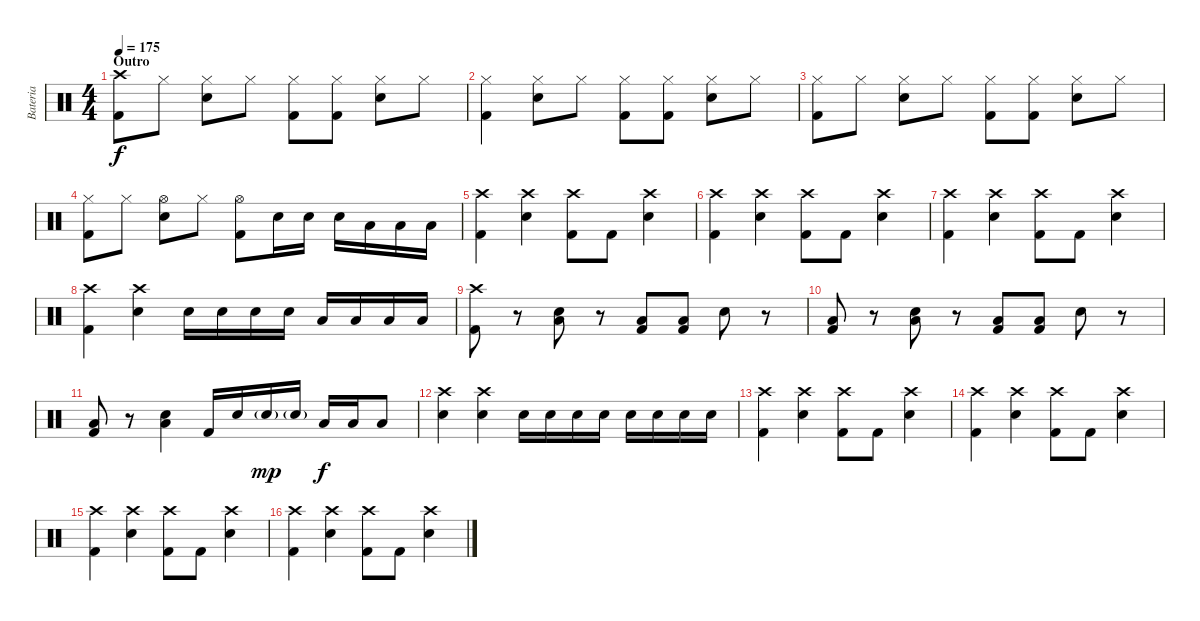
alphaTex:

\track ("Bateria" "Bateria") {instrument percussion}
\staff {score}
\articulation defaults
\ts (4 4)
\section ("" "Outro")
\tempo 175
\clef neutral
\ks c
("Crash high (hit)" "Kick (hit) 2").8{dy f} "Hi-Hat (closed)".8 ("Hi-Hat (closed)" "Electric Snare (hit)").8 "Hi-Hat (closed)".8 ("Hi-Hat (closed)" "Kick (hit) 2").8 ("Hi-Hat (closed)" "Kick (hit) 2").8 ("Hi-Hat (closed)" "Electric Snare (hit)").8 "Hi-Hat (closed)".8 |
("Hi-Hat (closed)" "Kick (hit) 2").4 ("Hi-Hat (closed)" "Electric Snare (hit)").8 "Hi-Hat (closed)".8 ("Hi-Hat (closed)" "Kick (hit) 2").8 ("Hi-Hat (closed)" "Kick (hit) 2").8 ("Hi-Hat (closed)" "Electric Snare (hit)").8 "Hi-Hat (closed)".8 |
("Hi-Hat (closed)" "Kick (hit) 2").8 "Hi-Hat (closed)".8 ("Hi-Hat (closed)" "Electric Snare (hit)").8 "Hi-Hat (closed)".8 ("Hi-Hat (closed)" "Kick (hit) 2").8 ("Hi-Hat (closed)" "Kick (hit) 2").8 ("Hi-Hat (closed)" "Electric Snare (hit)").8 "Hi-Hat (closed)".8 |
("Hi-Hat (closed)" "Kick (hit) 2").8 "Hi-Hat (closed)".8 ("Hi-Hat (open)" "Electric Snare (hit)").8 "Hi-Hat (closed)".8 ("Hi-Hat (open)" "Kick (hit) 2").8 "Electric Snare (hit)".16 "Electric Snare (hit)".16 "Electric Snare (hit)".16 "Low Tom (hit)".16 "Low Tom (hit)".16 "Low Tom (hit)".16 |
("Crash high (hit)" "Kick (hit) 2").4 ("Crash high (hit)" "Electric Snare (hit)").4 ("Crash high (hit)" "Kick (hit) 2").8 "Kick (hit) 2".8 ("Crash high (hit)" "Electric Snare (hit)").4 |
("Crash high (hit)" "Kick (hit) 2").4 ("Crash high (hit)" "Electric Snare (hit)").4 ("Crash high (hit)" "Kick (hit) 2").8 "Kick (hit) 2".8 ("Crash high (hit)" "Electric Snare (hit)").4 |
("Crash high (hit)" "Kick (hit) 2").4 ("Crash high (hit)" "Electric Snare (hit)").4 ("Crash high (hit)" "Kick (hit) 2").8 "Kick (hit) 2".8 ("Crash high (hit)" "Electric Snare (hit)").4 |
("Crash high (hit)" "Kick (hit) 2").4 ("Crash high (hit)" "Electric Snare (hit)").4 "Electric Snare (hit)".16 "Electric Snare (hit)".16 "Electric Snare (hit)".16 "Electric Snare (hit)".16 "Low Tom (hit)".16 "Low Tom (hit)".16 "Low Tom (hit)".16 "Low Tom (hit)".16 |
("Crash high (hit)" "Kick (hit) 2").8 r.8 ("Low Floor Tom (hit)" "Electric Snare (hit)").8 r.8 ("Low Floor Tom (hit)" "Kick (hit) 2").8 ("Low Floor Tom (hit)" "Kick (hit) 2").8 "Electric Snare (hit)".8 r.8 |
("Low Floor Tom (hit)" "Kick (hit) 2").8 r.8 ("Low Floor Tom (hit)" "Electric Snare (hit)").8 r.8 ("Low Floor Tom (hit)" "Kick (hit) 2").8 ("Low Floor Tom (hit)" "Kick (hit) 2").8 "Electric Snare (hit)".8 r.8 |
("Low Floor Tom (hit)" "Kick (hit) 2").8 r.8 ("Low Floor Tom (hit)" "Electric Snare (hit)").4 "Kick (hit) 2".16 "Electric Snare (hit)".16 "Electric Snare (hit)"{g}.16{dy mp} "Electric Snare (hit)"{g}.16 "Low Tom (hit)".16{dy f} "Low Tom (hit)".16 "Low Tom (hit)".8 |
("Crash high (hit)" "Electric Snare (hit)").4 ("Crash high (hit)" "Electric Snare (hit)").4 "Electric Snare (hit)".16 "Electric Snare (hit)".16 "Electric Snare (hit)".16 "Electric Snare (hit)".16 "Electric Snare (hit)".16 "Electric Snare (hit)".16 "Electric Snare (hit)".16 "Electric Snare (hit)".16 |
("Crash high (hit)" "Kick (hit) 2").4 ("Crash high (hit)" "Electric Snare (hit)").4 ("Crash high (hit)" "Kick (hit) 2").8 "Kick (hit) 2".8 ("Crash high (hit)" "Electric Snare (hit)").4 |
("Crash high (hit)" "Kick (hit) 2").4 ("Crash high (hit)" "Electric Snare (hit)").4 ("Crash high (hit)" "Kick (hit) 2").8 "Kick (hit) 2".8 ("Crash high (hit)" "Electric Snare (hit)").4 |
("Crash high (hit)" "Kick (hit) 2").4 ("Crash high (hit)" "Electric Snare (hit)").4 ("Crash high (hit)" "Kick (hit) 2").8 "Kick (hit) 2".8 ("Crash high (hit)" "Electric Snare (hit)").4 |
("Crash high (hit)" "Kick (hit) 2").4 ("Crash high (hit)" "Electric Snare (hit)").4 ("Crash high (hit)" "Kick (hit) 2").8 "Kick (hit) 2".8 ("Crash high (hit)" "Electric Snare (hit)").4
